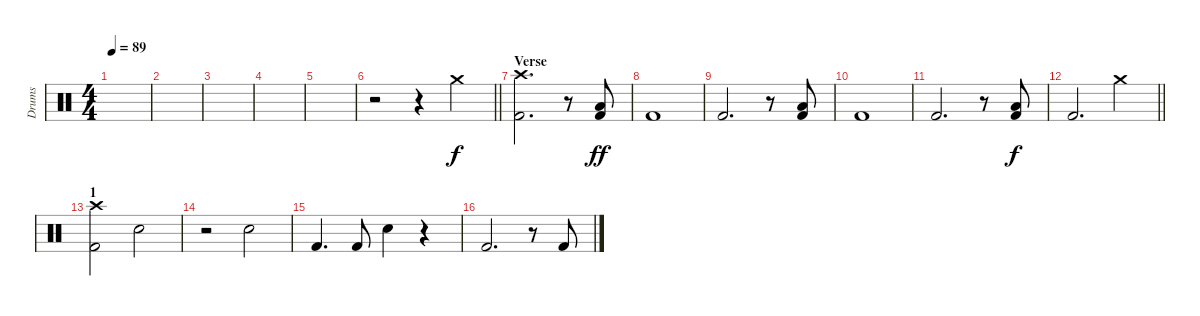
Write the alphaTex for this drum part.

\track ("Drums" "Drums") {instrument percussion}
\staff {score}
\articulation defaults
\ts (4 4)
\tempo 89
\clef neutral
\ks c
|
|
|
|
|
\barLineRight lightlight
r.2 r.4 "Crash medium (hit)".4 |
\section ("" "Verse")
("Crash high (hit)" "Kick (hit) 2").2{d} r.8 ("Low Floor Tom (hit)" "Kick (hit) 2").8{dy ff} |
"Kick (hit) 2".1 |
"Kick (hit) 2".2{d} r.8 ("Low Floor Tom (hit)" "Kick (hit) 2").8 |
"Kick (hit) 2".1 |
"Kick (hit) 2".2{d} r.8 ("Low Floor Tom (hit)" "Kick (hit) 2").8{dy f} |
\barLineRight lightlight "Kick (hit) 2".2{d} "Crash medium (hit)".4
|
\section ("" "1")
("Crash high (hit)" "Kick (hit) 2").2 "Electric Snare (hit)".2 |
r.2 "Electric Snare (hit)".2 |
"Kick (hit) 2".4{d} "Kick (hit) 2".8 "Electric Snare (hit)".4 r.4 |
"Kick (hit) 2".2{d} r.8 "Kick (hit) 2".8
